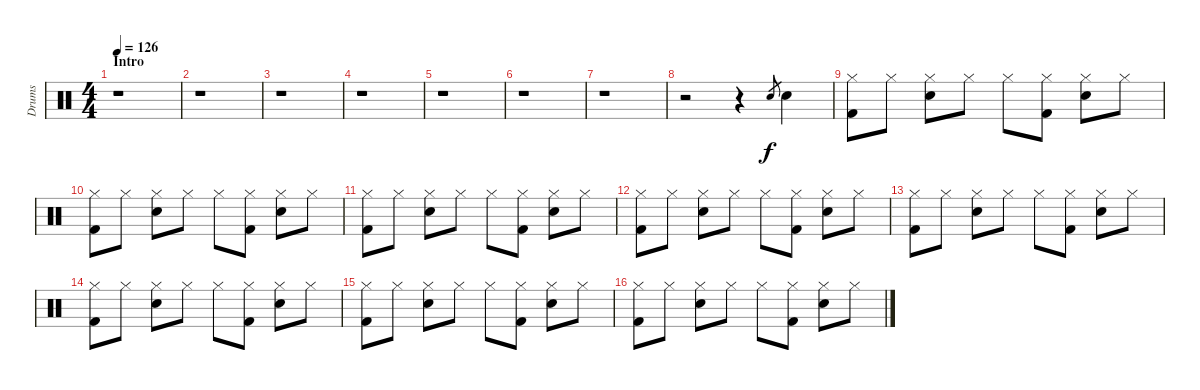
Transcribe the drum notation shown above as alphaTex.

\track ("Drums" "Drums") {instrument percussion}
\staff {score}
\articulation defaults
\ts (4 4)
\section ("" "Intro")
\tempo 126
\clef neutral
\ks c
r.1{dy f} |
r.1 |
r.1 |
r.1 |
r.1 |
r.1 |
r.1 |
r.2 r.4 "Snare (hit) 2".8{gr} "Snare (hit) 2".4 |
("Hi-Hat (closed)" "Kick (hit) 2").8 "Hi-Hat (closed)".8 ("Hi-Hat (closed)" "Snare (hit) 2").8 "Hi-Hat (closed)".8 "Hi-Hat (closed)".8 ("Hi-Hat (closed)" "Kick (hit) 2").8 ("Hi-Hat (closed)" "Snare (hit) 2").8 "Hi-Hat (closed)".8 |
("Hi-Hat (closed)" "Kick (hit) 2").8 "Hi-Hat (closed)".8 ("Hi-Hat (closed)" "Snare (hit) 2").8 "Hi-Hat (closed)".8 "Hi-Hat (closed)".8 ("Hi-Hat (closed)" "Kick (hit) 2").8 ("Hi-Hat (closed)" "Snare (hit) 2").8 "Hi-Hat (closed)".8 |
("Hi-Hat (closed)" "Kick (hit) 2").8 "Hi-Hat (closed)".8 ("Hi-Hat (closed)" "Snare (hit) 2").8 "Hi-Hat (closed)".8 "Hi-Hat (closed)".8 ("Hi-Hat (closed)" "Kick (hit) 2").8 ("Hi-Hat (closed)" "Snare (hit) 2").8 "Hi-Hat (closed)".8 |
("Hi-Hat (closed)" "Kick (hit) 2").8 "Hi-Hat (closed)".8 ("Hi-Hat (closed)" "Snare (hit) 2").8 "Hi-Hat (closed)".8 "Hi-Hat (closed)".8 ("Hi-Hat (closed)" "Kick (hit) 2").8 ("Hi-Hat (closed)" "Snare (hit) 2").8 "Hi-Hat (closed)".8 |
("Hi-Hat (closed)" "Kick (hit) 2").8 "Hi-Hat (closed)".8 ("Hi-Hat (closed)" "Snare (hit) 2").8 "Hi-Hat (closed)".8 "Hi-Hat (closed)".8 ("Hi-Hat (closed)" "Kick (hit) 2").8 ("Hi-Hat (closed)" "Snare (hit) 2").8 "Hi-Hat (closed)".8 |
("Hi-Hat (closed)" "Kick (hit) 2").8 "Hi-Hat (closed)".8 ("Hi-Hat (closed)" "Snare (hit) 2").8 "Hi-Hat (closed)".8 "Hi-Hat (closed)".8 ("Hi-Hat (closed)" "Kick (hit) 2").8 ("Hi-Hat (closed)" "Snare (hit) 2").8 "Hi-Hat (closed)".8 |
("Hi-Hat (closed)" "Kick (hit) 2").8 "Hi-Hat (closed)".8 ("Hi-Hat (closed)" "Snare (hit) 2").8 "Hi-Hat (closed)".8 "Hi-Hat (closed)".8 ("Hi-Hat (closed)" "Kick (hit) 2").8 ("Hi-Hat (closed)" "Snare (hit) 2").8 "Hi-Hat (closed)".8 |
("Hi-Hat (closed)" "Kick (hit) 2").8 "Hi-Hat (closed)".8 ("Hi-Hat (closed)" "Snare (hit) 2").8 "Hi-Hat (closed)".8 "Hi-Hat (closed)".8 ("Hi-Hat (closed)" "Kick (hit) 2").8 ("Hi-Hat (closed)" "Snare (hit) 2").8 "Hi-Hat (closed)".8
